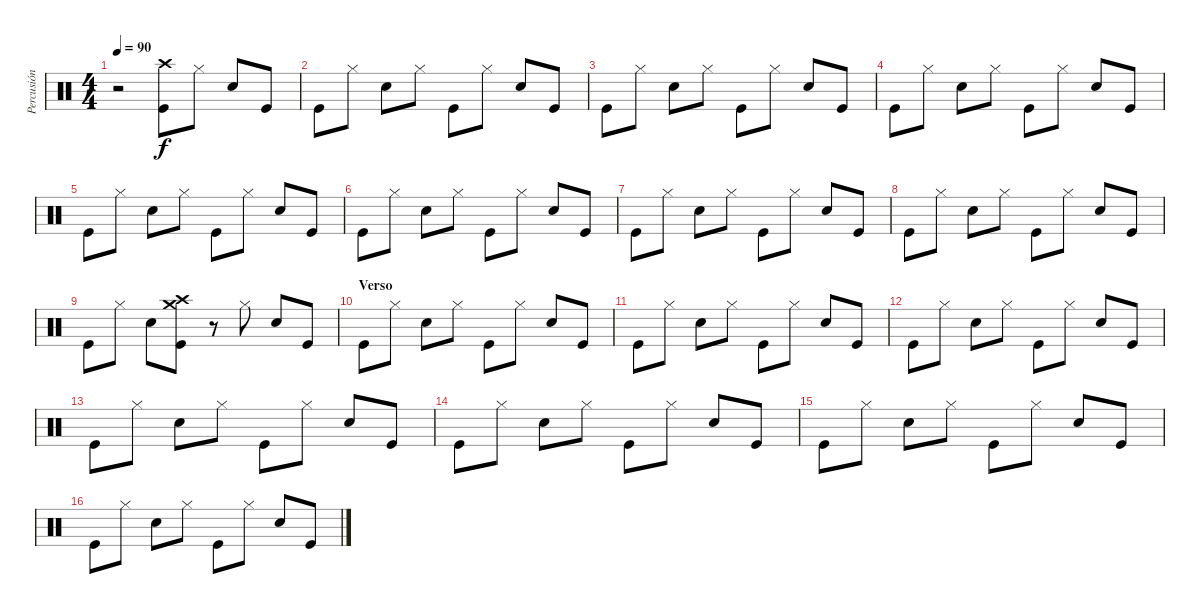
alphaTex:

\track ("Percusión" "Percusión") {instrument percussion}
\staff {score}
\articulation defaults
\ts (4 4)
\tempo 90
\clef neutral
\ks c
r.2{dy f} ("Crash high (hit)" "Kick (hit)").8 "Hi-Hat (closed)".8 "Snare (hit) 2".8 "Kick (hit)".8 |
"Kick (hit)".8 "Hi-Hat (closed)".8 "Snare (hit) 2".8 "Hi-Hat (closed)".8 "Kick (hit)".8 "Hi-Hat (closed)".8 "Snare (hit) 2".8 "Kick (hit)".8 |
"Kick (hit)".8 "Hi-Hat (closed)".8 "Snare (hit) 2".8 "Hi-Hat (closed)".8 "Kick (hit)".8 "Hi-Hat (closed)".8 "Snare (hit) 2".8 "Kick (hit)".8 |
"Kick (hit)".8 "Hi-Hat (closed)".8 "Snare (hit) 2".8 "Hi-Hat (closed)".8 "Kick (hit)".8 "Hi-Hat (closed)".8 "Snare (hit) 2".8 "Kick (hit)".8 |
"Kick (hit)".8 "Hi-Hat (closed)".8 "Snare (hit) 2".8 "Hi-Hat (closed)".8 "Kick (hit)".8 "Hi-Hat (closed)".8 "Snare (hit) 2".8 "Kick (hit)".8 |
"Kick (hit)".8 "Hi-Hat (closed)".8 "Snare (hit) 2".8 "Hi-Hat (closed)".8 "Kick (hit)".8 "Hi-Hat (closed)".8 "Snare (hit) 2".8 "Kick (hit)".8 |
"Kick (hit)".8 "Hi-Hat (closed)".8 "Snare (hit) 2".8 "Hi-Hat (closed)".8 "Kick (hit)".8 "Hi-Hat (closed)".8 "Snare (hit) 2".8 "Kick (hit)".8 |
"Kick (hit)".8 "Hi-Hat (closed)".8 "Snare (hit) 2".8 "Hi-Hat (closed)".8 "Kick (hit)".8 "Hi-Hat (closed)".8 "Snare (hit) 2".8 "Kick (hit)".8 |
"Kick (hit)".8 "Hi-Hat (closed)".8 "Snare (hit) 2".8 ("Crash high (hit)" "Crash medium (hit)" "Kick (hit)").8 r.8 "Hi-Hat (closed)".8 "Snare (hit) 2".8 "Kick (hit)".8 |
\section ("" "Verso")
"Kick (hit)".8 "Hi-Hat (closed)".8 "Snare (hit) 2".8 "Hi-Hat (closed)".8 "Kick (hit)".8 "Hi-Hat (closed)".8 "Snare (hit) 2".8 "Kick (hit)".8 |
"Kick (hit)".8 "Hi-Hat (closed)".8 "Snare (hit) 2".8 "Hi-Hat (closed)".8 "Kick (hit)".8 "Hi-Hat (closed)".8 "Snare (hit) 2".8 "Kick (hit)".8 |
"Kick (hit)".8 "Hi-Hat (closed)".8 "Snare (hit) 2".8 "Hi-Hat (closed)".8 "Kick (hit)".8 "Hi-Hat (closed)".8 "Snare (hit) 2".8 "Kick (hit)".8 |
"Kick (hit)".8 "Hi-Hat (closed)".8 "Snare (hit) 2".8 "Hi-Hat (closed)".8 "Kick (hit)".8 "Hi-Hat (closed)".8 "Snare (hit) 2".8 "Kick (hit)".8 |
"Kick (hit)".8 "Hi-Hat (closed)".8 "Snare (hit) 2".8 "Hi-Hat (closed)".8 "Kick (hit)".8 "Hi-Hat (closed)".8 "Snare (hit) 2".8 "Kick (hit)".8 |
"Kick (hit)".8 "Hi-Hat (closed)".8 "Snare (hit) 2".8 "Hi-Hat (closed)".8 "Kick (hit)".8 "Hi-Hat (closed)".8 "Snare (hit) 2".8 "Kick (hit)".8 |
"Kick (hit)".8 "Hi-Hat (closed)".8 "Snare (hit) 2".8 "Hi-Hat (closed)".8 "Kick (hit)".8 "Hi-Hat (closed)".8 "Snare (hit) 2".8 "Kick (hit)".8
